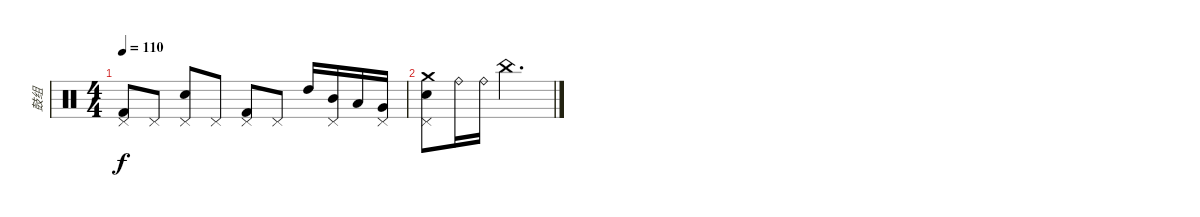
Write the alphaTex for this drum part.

\track ("鼓组" "鼓组") {instrument percussion}
\staff {score}
\articulation defaults
\ts (4 4)
\tempo 110
\clef neutral
\ks c
("Kick (hit) 2" "Pedal Hi-Hat (hit)").8{dy f} "Pedal Hi-Hat (hit)".8 ("Electric Snare (hit)" "Pedal Hi-Hat (hit)").8 "Pedal Hi-Hat (hit)".8 ("Kick (hit) 2" "Pedal Hi-Hat (hit)").8 "Pedal Hi-Hat (hit)".8 "High Tom (hit)".16 ("Mid Tom (hit)" "Pedal Hi-Hat (hit)").16 "Low Tom (hit)".16 ("Very Low Tom (hit)" "Pedal Hi-Hat (hit)").16 |
("Crash medium (hit)" "Electric Snare (hit)" "Pedal Hi-Hat (hit)").8 "Ride (bell)".16{volume 10} "Ride (bell)".16 "China (hit)".2{d volume 4}
